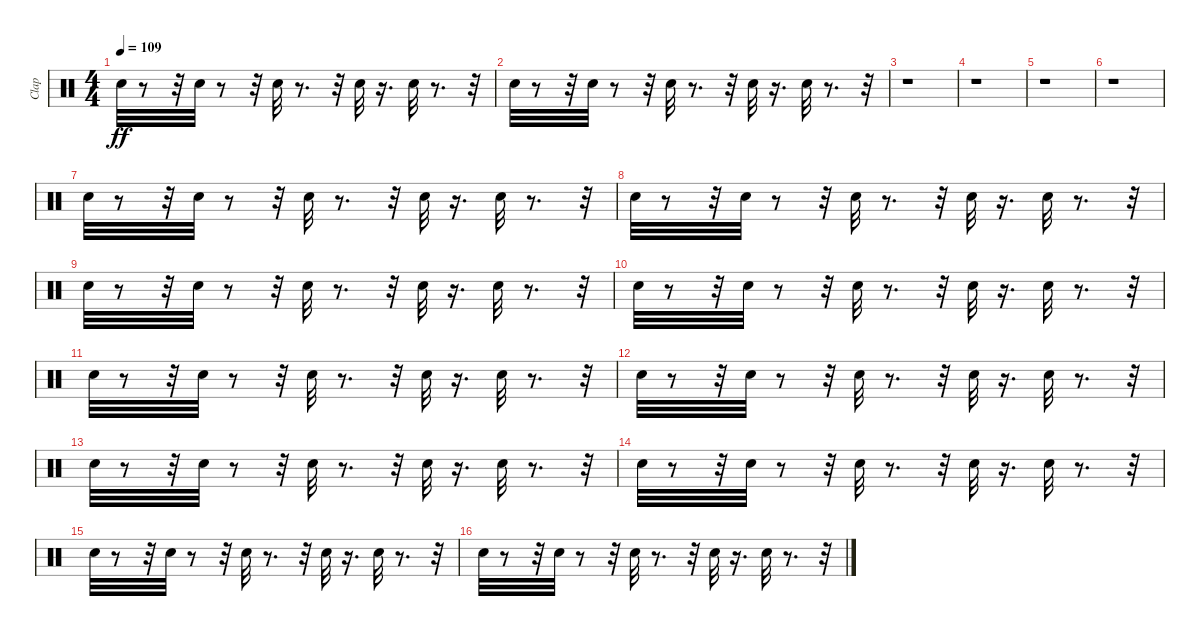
\track ("Clap" "Clap") {instrument percussion}
\staff {score}
\articulation defaults
\ts (4 4)
\tempo 109
\clef neutral
\ks c "Hand Clap (hit)".32{dy ff}
r.8 r.32 "Hand Clap (hit)".32 r.8 r.32 "Hand Clap (hit)".32 r.8{d} r.32 "Hand Clap (hit)".32 r.16{d} "Hand Clap (hit)".32 r.8{d} r.32 |
"Hand Clap (hit)".32 r.8 r.32 "Hand Clap (hit)".32 r.8 r.32 "Hand Clap (hit)".32 r.8{d} r.32 "Hand Clap (hit)".32 r.16{d} "Hand Clap (hit)".32 r.8{d} r.32 |
r.1 |
r.1 |
r.1 |
r.1 |
"Hand Clap (hit)".32 r.8 r.32 "Hand Clap (hit)".32 r.8 r.32 "Hand Clap (hit)".32 r.8{d} r.32 "Hand Clap (hit)".32 r.16{d} "Hand Clap (hit)".32 r.8{d} r.32 |
"Hand Clap (hit)".32 r.8 r.32 "Hand Clap (hit)".32 r.8 r.32 "Hand Clap (hit)".32 r.8{d} r.32 "Hand Clap (hit)".32 r.16{d} "Hand Clap (hit)".32 r.8{d} r.32 |
"Hand Clap (hit)".32 r.8 r.32 "Hand Clap (hit)".32 r.8 r.32 "Hand Clap (hit)".32 r.8{d} r.32 "Hand Clap (hit)".32 r.16{d} "Hand Clap (hit)".32 r.8{d} r.32 |
"Hand Clap (hit)".32 r.8 r.32 "Hand Clap (hit)".32 r.8 r.32 "Hand Clap (hit)".32 r.8{d} r.32 "Hand Clap (hit)".32 r.16{d} "Hand Clap (hit)".32 r.8{d} r.32 |
"Hand Clap (hit)".32 r.8 r.32 "Hand Clap (hit)".32 r.8 r.32 "Hand Clap (hit)".32 r.8{d} r.32 "Hand Clap (hit)".32 r.16{d} "Hand Clap (hit)".32 r.8{d} r.32 |
"Hand Clap (hit)".32 r.8 r.32 "Hand Clap (hit)".32 r.8 r.32 "Hand Clap (hit)".32 r.8{d} r.32 "Hand Clap (hit)".32 r.16{d} "Hand Clap (hit)".32 r.8{d} r.32 |
"Hand Clap (hit)".32 r.8 r.32 "Hand Clap (hit)".32 r.8 r.32 "Hand Clap (hit)".32 r.8{d} r.32 "Hand Clap (hit)".32 r.16{d} "Hand Clap (hit)".32 r.8{d} r.32 |
"Hand Clap (hit)".32 r.8 r.32 "Hand Clap (hit)".32 r.8 r.32 "Hand Clap (hit)".32 r.8{d} r.32 "Hand Clap (hit)".32 r.16{d} "Hand Clap (hit)".32 r.8{d} r.32 |
"Hand Clap (hit)".32 r.8 r.32 "Hand Clap (hit)".32 r.8 r.32 "Hand Clap (hit)".32 r.8{d} r.32 "Hand Clap (hit)".32 r.16{d} "Hand Clap (hit)".32 r.8{d} r.32 |
"Hand Clap (hit)".32 r.8 r.32 "Hand Clap (hit)".32 r.8 r.32 "Hand Clap (hit)".32 r.8{d} r.32 "Hand Clap (hit)".32 r.16{d} "Hand Clap (hit)".32 r.8{d} r.32
